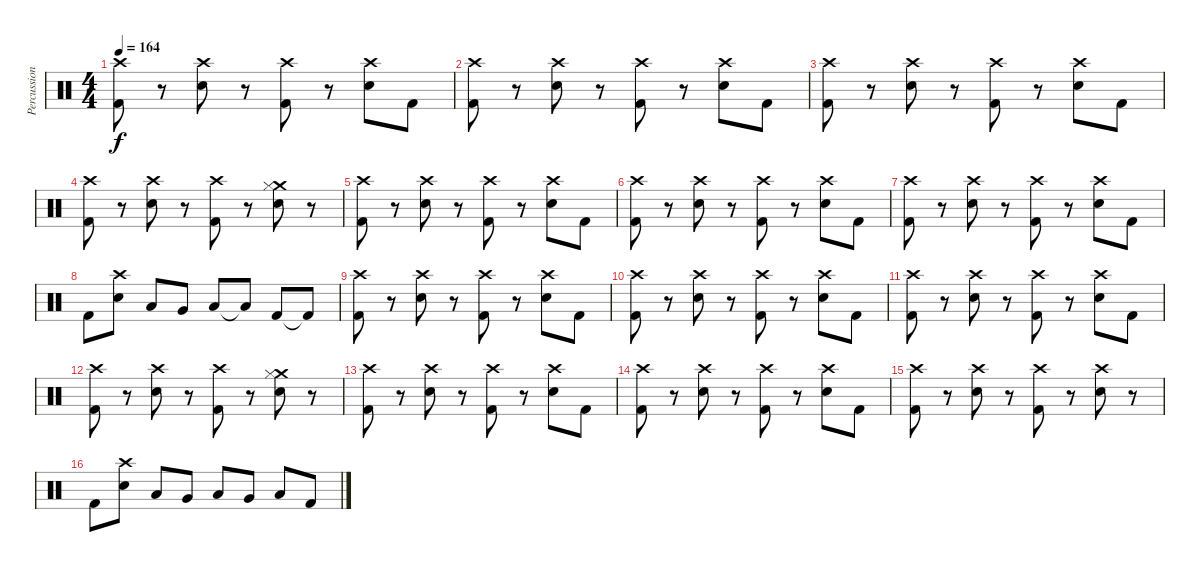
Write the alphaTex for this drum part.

\track ("Percussion" "Percussion") {instrument percussion}
\staff {score}
\articulation defaults
\ts (4 4)
\tempo 164
\clef neutral
\ks c
("Crash high (hit)" "Kick (hit) 2").8{dy f} r.8 ("Crash high (hit)" "Electric Snare (hit)").8 r.8 ("Crash high (hit)" "Kick (hit) 2").8 r.8 ("Crash high (hit)" "Electric Snare (hit)").8 "Kick (hit) 2".8 |
("Crash high (hit)" "Kick (hit) 2").8 r.8 ("Crash high (hit)" "Electric Snare (hit)").8 r.8 ("Crash high (hit)" "Kick (hit) 2").8 r.8 ("Crash high (hit)" "Electric Snare (hit)").8 "Kick (hit) 2".8 |
("Crash high (hit)" "Kick (hit) 2").8 r.8 ("Crash high (hit)" "Electric Snare (hit)").8 r.8 ("Crash high (hit)" "Kick (hit) 2").8 r.8 ("Crash high (hit)" "Electric Snare (hit)").8 "Kick (hit) 2".8 |
("Crash high (hit)" "Kick (hit) 2").8 r.8 ("Crash high (hit)" "Electric Snare (hit)").8 r.8 ("Crash high (hit)" "Kick (hit) 2").8 r.8 ("Crash medium (hit)" "Hi-Hat (closed)" "Electric Snare (hit)").8 r.8 |
("Crash high (hit)" "Kick (hit) 2").8 r.8 ("Crash high (hit)" "Electric Snare (hit)").8 r.8 ("Crash high (hit)" "Kick (hit) 2").8 r.8 ("Crash high (hit)" "Electric Snare (hit)").8 "Kick (hit) 2".8 |
("Crash high (hit)" "Kick (hit) 2").8 r.8 ("Crash high (hit)" "Electric Snare (hit)").8 r.8 ("Crash high (hit)" "Kick (hit) 2").8 r.8 ("Crash high (hit)" "Electric Snare (hit)").8 "Kick (hit) 2".8 |
("Crash high (hit)" "Kick (hit) 2").8 r.8 ("Crash high (hit)" "Electric Snare (hit)").8 r.8 ("Crash high (hit)" "Kick (hit) 2").8 r.8 ("Crash high (hit)" "Electric Snare (hit)").8 "Kick (hit) 2".8 |
"Kick (hit) 2".8 ("Crash high (hit)" "Electric Snare (hit)").8 "Low Tom (hit)".8 "Very Low Tom (hit)".8 "Low Floor Tom (hit)".8 "Low Floor Tom (hit)"{t}.8 "Kick (hit) 2".8 "Kick (hit) 2"{t}.8 |
("Crash high (hit)" "Kick (hit) 2").8 r.8 ("Crash high (hit)" "Electric Snare (hit)").8 r.8 ("Crash high (hit)" "Kick (hit) 2").8 r.8 ("Crash high (hit)" "Electric Snare (hit)").8 "Kick (hit) 2".8 |
("Crash high (hit)" "Kick (hit) 2").8 r.8 ("Crash high (hit)" "Electric Snare (hit)").8 r.8 ("Crash high (hit)" "Kick (hit) 2").8 r.8 ("Crash high (hit)" "Electric Snare (hit)").8 "Kick (hit) 2".8 |
("Crash high (hit)" "Kick (hit) 2").8 r.8 ("Crash high (hit)" "Electric Snare (hit)").8 r.8 ("Crash high (hit)" "Kick (hit) 2").8 r.8 ("Crash high (hit)" "Electric Snare (hit)").8 "Kick (hit) 2".8 |
("Crash high (hit)" "Kick (hit) 2").8 r.8 ("Crash high (hit)" "Electric Snare (hit)").8 r.8 ("Crash high (hit)" "Kick (hit) 2").8 r.8 ("Crash medium (hit)" "Hi-Hat (closed)" "Electric Snare (hit)").8 r.8 |
("Crash high (hit)" "Kick (hit) 2").8 r.8 ("Crash high (hit)" "Electric Snare (hit)").8 r.8 ("Crash high (hit)" "Kick (hit) 2").8 r.8 ("Crash high (hit)" "Electric Snare (hit)").8 "Kick (hit) 2".8 |
("Crash high (hit)" "Kick (hit) 2").8 r.8 ("Crash high (hit)" "Electric Snare (hit)").8 r.8 ("Crash high (hit)" "Kick (hit) 2").8 r.8 ("Crash high (hit)" "Electric Snare (hit)").8 "Kick (hit) 2".8 |
("Crash high (hit)" "Kick (hit) 2").8 r.8 ("Crash high (hit)" "Electric Snare (hit)").8 r.8 ("Crash high (hit)" "Kick (hit) 2").8 r.8 ("Crash high (hit)" "Electric Snare (hit)").8 r.8 |
"Kick (hit) 2".8 ("Crash high (hit)" "Electric Snare (hit)").8 "Low Tom (hit)".8 "Very Low Tom (hit)".8 "Low Floor Tom (hit)".8 "Very Low Tom (hit)".8 "Low Floor Tom (hit)".8 "Kick (hit) 2".8
